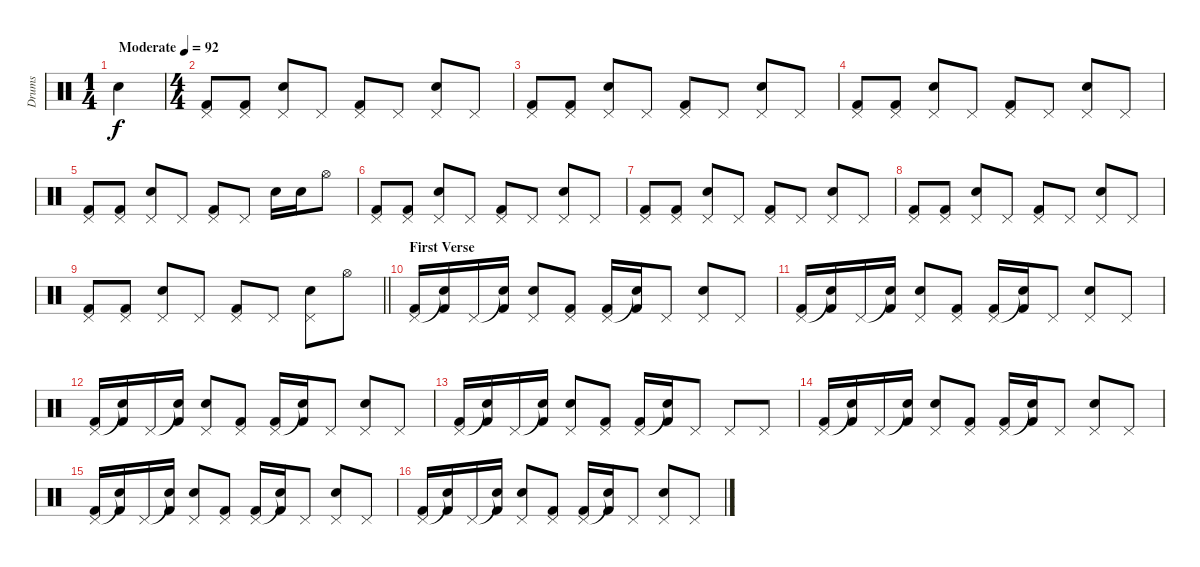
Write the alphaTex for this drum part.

\track ("Drums" "Drums") {instrument percussion}
\staff {score}
\articulation defaults
\ts (1 4)
\tempo (92 "Moderate")
\clef neutral
\ks c "Electric Snare (hit)".4{dy f}
|
\ts (4 4)
("Pedal Hi-Hat (hit)" "Kick (hit) 2").8 ("Pedal Hi-Hat (hit)" "Kick (hit) 2").8 ("Pedal Hi-Hat (hit)" "Electric Snare (hit)").8 "Pedal Hi-Hat (hit)".8 ("Pedal Hi-Hat (hit)" "Kick (hit) 2").8 "Pedal Hi-Hat (hit)".8 ("Pedal Hi-Hat (hit)" "Electric Snare (hit)").8 "Pedal Hi-Hat (hit)".8 |
("Pedal Hi-Hat (hit)" "Kick (hit) 2").8 ("Pedal Hi-Hat (hit)" "Kick (hit) 2").8 ("Pedal Hi-Hat (hit)" "Electric Snare (hit)").8 "Pedal Hi-Hat (hit)".8 ("Pedal Hi-Hat (hit)" "Kick (hit) 2").8 "Pedal Hi-Hat (hit)".8 ("Pedal Hi-Hat (hit)" "Electric Snare (hit)").8 "Pedal Hi-Hat (hit)".8 |
("Pedal Hi-Hat (hit)" "Kick (hit) 2").8 ("Pedal Hi-Hat (hit)" "Kick (hit) 2").8 ("Pedal Hi-Hat (hit)" "Electric Snare (hit)").8 "Pedal Hi-Hat (hit)".8 ("Pedal Hi-Hat (hit)" "Kick (hit) 2").8 "Pedal Hi-Hat (hit)".8 ("Pedal Hi-Hat (hit)" "Electric Snare (hit)").8 "Pedal Hi-Hat (hit)".8 |
("Pedal Hi-Hat (hit)" "Kick (hit) 2").8 ("Pedal Hi-Hat (hit)" "Kick (hit) 2").8 ("Pedal Hi-Hat (hit)" "Electric Snare (hit)").8 "Pedal Hi-Hat (hit)".8 ("Pedal Hi-Hat (hit)" "Kick (hit) 2").8 "Pedal Hi-Hat (hit)".8 "Electric Snare (hit)".16 "Electric Snare (hit)".16 "Hi-Hat (open)".8 |
("Pedal Hi-Hat (hit)" "Kick (hit) 2").8 ("Pedal Hi-Hat (hit)" "Kick (hit) 2").8 ("Pedal Hi-Hat (hit)" "Electric Snare (hit)").8 "Pedal Hi-Hat (hit)".8 ("Pedal Hi-Hat (hit)" "Kick (hit) 2").8 "Pedal Hi-Hat (hit)".8 ("Pedal Hi-Hat (hit)" "Electric Snare (hit)").8 "Pedal Hi-Hat (hit)".8 |
("Pedal Hi-Hat (hit)" "Kick (hit) 2").8 ("Pedal Hi-Hat (hit)" "Kick (hit) 2").8 ("Pedal Hi-Hat (hit)" "Electric Snare (hit)").8 "Pedal Hi-Hat (hit)".8 ("Pedal Hi-Hat (hit)" "Kick (hit) 2").8 "Pedal Hi-Hat (hit)".8 ("Pedal Hi-Hat (hit)" "Electric Snare (hit)").8 "Pedal Hi-Hat (hit)".8 |
("Pedal Hi-Hat (hit)" "Kick (hit) 2").8 ("Pedal Hi-Hat (hit)" "Kick (hit) 2").8 ("Pedal Hi-Hat (hit)" "Electric Snare (hit)").8 "Pedal Hi-Hat (hit)".8 ("Pedal Hi-Hat (hit)" "Kick (hit) 2").8 "Pedal Hi-Hat (hit)".8 ("Pedal Hi-Hat (hit)" "Electric Snare (hit)").8 "Pedal Hi-Hat (hit)".8 |
\barLineRight lightlight
("Pedal Hi-Hat (hit)" "Kick (hit) 2").8 ("Pedal Hi-Hat (hit)" "Kick (hit) 2").8 ("Pedal Hi-Hat (hit)" "Electric Snare (hit)").8 "Pedal Hi-Hat (hit)".8 ("Pedal Hi-Hat (hit)" "Kick (hit) 2").8 "Pedal Hi-Hat (hit)".8 ("Pedal Hi-Hat (hit)" "Electric Snare (hit)").8 "Hi-Hat (open)".8 |
\section ("" "First Verse")
("Pedal Hi-Hat (hit)" "Kick (hit) 2").16 ("Snare (hit)"{t} "Kick (hit) 2").16 "Pedal Hi-Hat (hit)".16 ("Snare (hit)"{t} "Kick (hit) 2").16 ("Pedal Hi-Hat (hit)" "Electric Snare (hit)").8 ("Pedal Hi-Hat (hit)" "Kick (hit) 2").8 ("Pedal Hi-Hat (hit)" "Kick (hit) 2").16 ("Snare (hit)"{t} "Kick (hit) 2").16 "Pedal Hi-Hat (hit)".8 ("Pedal Hi-Hat (hit)" "Electric Snare (hit)").8 "Pedal Hi-Hat (hit)".8 |
("Pedal Hi-Hat (hit)" "Kick (hit) 2").16 ("Snare (hit)"{t} "Kick (hit) 2").16 "Pedal Hi-Hat (hit)".16 ("Snare (hit)"{t} "Kick (hit) 2").16 ("Pedal Hi-Hat (hit)" "Electric Snare (hit)").8 ("Pedal Hi-Hat (hit)" "Kick (hit) 2").8 ("Pedal Hi-Hat (hit)" "Kick (hit) 2").16 ("Snare (hit)"{t} "Kick (hit) 2").16 "Pedal Hi-Hat (hit)".8 ("Pedal Hi-Hat (hit)" "Electric Snare (hit)").8 "Pedal Hi-Hat (hit)".8 |
("Pedal Hi-Hat (hit)" "Kick (hit) 2").16 ("Snare (hit)"{t} "Kick (hit) 2").16 "Pedal Hi-Hat (hit)".16 ("Snare (hit)"{t} "Kick (hit) 2").16 ("Pedal Hi-Hat (hit)" "Electric Snare (hit)").8 ("Pedal Hi-Hat (hit)" "Kick (hit) 2").8 ("Pedal Hi-Hat (hit)" "Kick (hit) 2").16 ("Snare (hit)"{t} "Kick (hit) 2").16 "Pedal Hi-Hat (hit)".8 ("Pedal Hi-Hat (hit)" "Electric Snare (hit)").8 "Pedal Hi-Hat (hit)".8 |
("Pedal Hi-Hat (hit)" "Kick (hit) 2").16 ("Snare (hit)"{t} "Kick (hit) 2").16 "Pedal Hi-Hat (hit)".16 ("Snare (hit)"{t} "Kick (hit) 2").16 ("Pedal Hi-Hat (hit)" "Electric Snare (hit)").8 ("Pedal Hi-Hat (hit)" "Kick (hit) 2").8 ("Pedal Hi-Hat (hit)" "Kick (hit) 2").16 ("Snare (hit)"{t} "Kick (hit) 2").16 "Pedal Hi-Hat (hit)".8 "Pedal Hi-Hat (hit)".8 "Pedal Hi-Hat (hit)".8 |
("Pedal Hi-Hat (hit)" "Kick (hit) 2").16 ("Snare (hit)"{t} "Kick (hit) 2").16 "Pedal Hi-Hat (hit)".16 ("Snare (hit)"{t} "Kick (hit) 2").16 ("Pedal Hi-Hat (hit)" "Electric Snare (hit)").8 ("Pedal Hi-Hat (hit)" "Kick (hit) 2").8 ("Pedal Hi-Hat (hit)" "Kick (hit) 2").16 ("Snare (hit)"{t} "Kick (hit) 2").16 "Pedal Hi-Hat (hit)".8 ("Pedal Hi-Hat (hit)" "Electric Snare (hit)").8 "Pedal Hi-Hat (hit)".8 |
("Pedal Hi-Hat (hit)" "Kick (hit) 2").16 ("Snare (hit)"{t} "Kick (hit) 2").16 "Pedal Hi-Hat (hit)".16 ("Snare (hit)"{t} "Kick (hit) 2").16 ("Pedal Hi-Hat (hit)" "Electric Snare (hit)").8 ("Pedal Hi-Hat (hit)" "Kick (hit) 2").8 ("Pedal Hi-Hat (hit)" "Kick (hit) 2").16 ("Snare (hit)"{t} "Kick (hit) 2").16 "Pedal Hi-Hat (hit)".8 ("Pedal Hi-Hat (hit)" "Electric Snare (hit)").8 "Pedal Hi-Hat (hit)".8 |
("Pedal Hi-Hat (hit)" "Kick (hit) 2").16 ("Snare (hit)"{t} "Kick (hit) 2").16 "Pedal Hi-Hat (hit)".16 ("Snare (hit)"{t} "Kick (hit) 2").16 ("Pedal Hi-Hat (hit)" "Electric Snare (hit)").8 ("Pedal Hi-Hat (hit)" "Kick (hit) 2").8 ("Pedal Hi-Hat (hit)" "Kick (hit) 2").16 ("Snare (hit)"{t} "Kick (hit) 2").16 "Pedal Hi-Hat (hit)".8 ("Pedal Hi-Hat (hit)" "Electric Snare (hit)").8 "Pedal Hi-Hat (hit)".8
